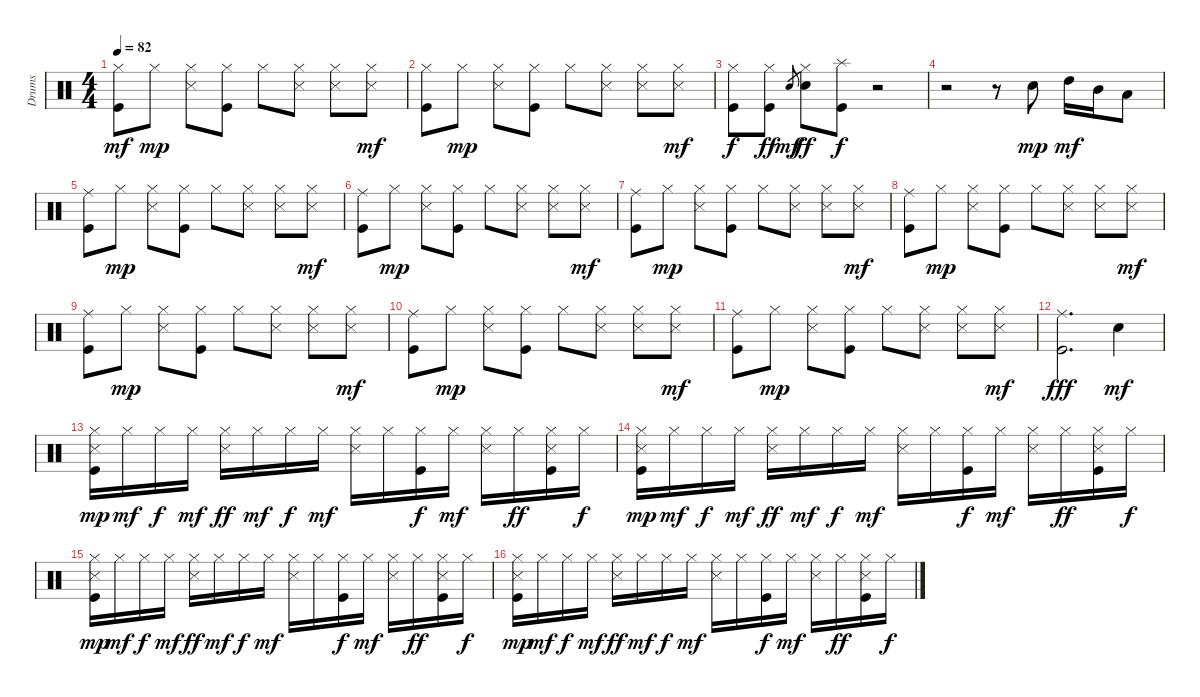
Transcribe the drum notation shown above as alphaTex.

\track ("Drums" "Drums") {instrument percussion}
\staff {score}
\articulation defaults
\ts (4 4)
\tempo 82
\clef neutral
\ks c
("Kick (hit)" "Hi-Hat (closed)").8{dy mf} "Hi-Hat (closed)".8{dy mp} ("Snare (side stick) 3" "Hi-Hat (closed)").8 ("Kick (hit)" "Hi-Hat (closed)").8 "Hi-Hat (closed)".8 ("Snare (side stick) 3" "Hi-Hat (closed)").8 ("Snare (side stick) 3" "Hi-Hat (closed)").8 ("Snare (side stick) 3" "Hi-Hat (closed)").8{dy mf} |
("Kick (hit)" "Hi-Hat (closed)").8 "Hi-Hat (closed)".8{dy mp} ("Snare (side stick) 3" "Hi-Hat (closed)").8 ("Kick (hit)" "Hi-Hat (closed)").8 "Hi-Hat (closed)".8 ("Snare (side stick) 3" "Hi-Hat (closed)").8 ("Snare (side stick) 3" "Hi-Hat (closed)").8 ("Snare (side stick) 3" "Hi-Hat (closed)").8{dy mf} |
("Kick (hit)" "Hi-Hat (closed)").8{dy f} ("Kick (hit)" "Hi-Hat (closed)").8{dy ff} "Electric Snare (hit)".8{gr dy mf} ("Electric Snare (hit)" "Hi-Hat (closed)").8{dy ff} ("Kick (hit)" "Splash (hit)").8{dy f} r.2 |
r.2 r.8 "Electric Snare (hit)".8{dy mp} "High Tom (hit)".16{dy mf} "Mid Tom (hit)".16 "Low Tom (hit)".8 |
("Kick (hit)" "Ride (middle)").8 "Hi-Hat (closed)".8{dy mp} ("Snare (side stick) 3" "Hi-Hat (closed)").8 ("Kick (hit)" "Hi-Hat (closed)").8 "Hi-Hat (closed)".8 ("Snare (side stick) 3" "Hi-Hat (closed)").8 ("Snare (side stick) 3" "Hi-Hat (closed)").8 ("Snare (side stick) 3" "Hi-Hat (closed)").8{dy mf} |
("Kick (hit)" "Ride (middle)").8 "Hi-Hat (closed)".8{dy mp} ("Snare (side stick) 3" "Hi-Hat (closed)").8 ("Kick (hit)" "Hi-Hat (closed)").8 "Hi-Hat (closed)".8 ("Snare (side stick) 3" "Hi-Hat (closed)").8 ("Snare (side stick) 3" "Hi-Hat (closed)").8 ("Snare (side stick) 3" "Hi-Hat (closed)").8{dy mf} |
("Kick (hit)" "Ride (middle)").8 "Hi-Hat (closed)".8{dy mp} ("Snare (side stick) 3" "Hi-Hat (closed)").8 ("Kick (hit)" "Hi-Hat (closed)").8 "Hi-Hat (closed)".8 ("Snare (side stick) 3" "Hi-Hat (closed)").8 ("Snare (side stick) 3" "Hi-Hat (closed)").8 ("Snare (side stick) 3" "Hi-Hat (closed)").8{dy mf} |
("Kick (hit)" "Ride (middle)").8 "Hi-Hat (closed)".8{dy mp} ("Snare (side stick) 3" "Hi-Hat (closed)").8 ("Kick (hit)" "Hi-Hat (closed)").8 "Hi-Hat (closed)".8 ("Snare (side stick) 3" "Hi-Hat (closed)").8 ("Snare (side stick) 3" "Hi-Hat (closed)").8 ("Snare (side stick) 3" "Hi-Hat (closed)").8{dy mf} |
("Kick (hit)" "Ride (middle)").8 "Hi-Hat (closed)".8{dy mp} ("Snare (side stick) 3" "Hi-Hat (closed)").8 ("Kick (hit)" "Hi-Hat (closed)").8 "Hi-Hat (closed)".8 ("Snare (side stick) 3" "Hi-Hat (closed)").8 ("Snare (side stick) 3" "Hi-Hat (closed)").8 ("Snare (side stick) 3" "Hi-Hat (closed)").8{dy mf} |
("Kick (hit)" "Ride (middle)").8 "Hi-Hat (closed)".8{dy mp} ("Snare (side stick) 3" "Hi-Hat (closed)").8 ("Kick (hit)" "Hi-Hat (closed)").8 "Hi-Hat (closed)".8 ("Snare (side stick) 3" "Hi-Hat (closed)").8 ("Snare (side stick) 3" "Hi-Hat (closed)").8 ("Snare (side stick) 3" "Hi-Hat (closed)").8{dy mf} |
("Kick (hit)" "Ride (middle)").8 "Hi-Hat (closed)".8{dy mp} ("Snare (side stick) 3" "Hi-Hat (closed)").8 ("Kick (hit)" "Hi-Hat (closed)").8 "Hi-Hat (closed)".8 ("Snare (side stick) 3" "Hi-Hat (closed)").8 ("Snare (side stick) 3" "Hi-Hat (closed)").8 ("Snare (side stick) 3" "Hi-Hat (closed)").8{dy mf} |
("Kick (hit)" "Ride (middle)").2{d dy fff} "Electric Snare (hit)".4{dy mf} |
("Kick (hit)" "Snare (side stick) 3" "Hi-Hat (closed)").16{dy mp} "Hi-Hat (closed)".16{dy mf} "Hi-Hat (closed)".16{dy f} "Hi-Hat (closed)".16{dy mf} ("Snare (side stick) 3" "Hi-Hat (closed)").16{dy ff} "Hi-Hat (closed)".16{dy mf} "Hi-Hat (closed)".16{dy f} "Hi-Hat (closed)".16{dy mf} ("Snare (side stick) 3" "Hi-Hat (closed)").16 "Hi-Hat (closed)".16 ("Kick (hit)" "Hi-Hat (closed)").16{dy f} "Hi-Hat (closed)".16{dy mf} ("Snare (side stick) 3" "Hi-Hat (closed)").16 "Hi-Hat (closed)".16{dy ff} ("Kick (hit)" "Snare (side stick) 3" "Hi-Hat (closed)").16 "Hi-Hat (closed)".16{dy f} |
("Kick (hit)" "Snare (side stick) 3" "Hi-Hat (closed)").16{dy mp} "Hi-Hat (closed)".16{dy mf} "Hi-Hat (closed)".16{dy f} "Hi-Hat (closed)".16{dy mf} ("Snare (side stick) 3" "Hi-Hat (closed)").16{dy ff} "Hi-Hat (closed)".16{dy mf} "Hi-Hat (closed)".16{dy f} "Hi-Hat (closed)".16{dy mf} ("Snare (side stick) 3" "Hi-Hat (closed)").16 "Hi-Hat (closed)".16 ("Kick (hit)" "Hi-Hat (closed)").16{dy f} "Hi-Hat (closed)".16{dy mf} ("Snare (side stick) 3" "Hi-Hat (closed)").16 "Hi-Hat (closed)".16{dy ff} ("Kick (hit)" "Snare (side stick) 3" "Hi-Hat (closed)").16 "Hi-Hat (closed)".16{dy f} |
("Kick (hit)" "Snare (side stick) 3" "Hi-Hat (closed)").16{dy mp} "Hi-Hat (closed)".16{dy mf} "Hi-Hat (closed)".16{dy f} "Hi-Hat (closed)".16{dy mf} ("Snare (side stick) 3" "Hi-Hat (closed)").16{dy ff} "Hi-Hat (closed)".16{dy mf} "Hi-Hat (closed)".16{dy f} "Hi-Hat (closed)".16{dy mf} ("Snare (side stick) 3" "Hi-Hat (closed)").16 "Hi-Hat (closed)".16 ("Kick (hit)" "Hi-Hat (closed)").16{dy f} "Hi-Hat (closed)".16{dy mf} ("Snare (side stick) 3" "Hi-Hat (closed)").16 "Hi-Hat (closed)".16{dy ff} ("Kick (hit)" "Snare (side stick) 3" "Hi-Hat (closed)").16 "Hi-Hat (closed)".16{dy f} |
("Kick (hit)" "Snare (side stick) 3" "Hi-Hat (closed)").16{dy mp} "Hi-Hat (closed)".16{dy mf} "Hi-Hat (closed)".16{dy f} "Hi-Hat (closed)".16{dy mf} ("Snare (side stick) 3" "Hi-Hat (closed)").16{dy ff} "Hi-Hat (closed)".16{dy mf} "Hi-Hat (closed)".16{dy f} "Hi-Hat (closed)".16{dy mf} ("Snare (side stick) 3" "Hi-Hat (closed)").16 "Hi-Hat (closed)".16 ("Kick (hit)" "Hi-Hat (closed)").16{dy f} "Hi-Hat (closed)".16{dy mf} ("Snare (side stick) 3" "Hi-Hat (closed)").16 "Hi-Hat (closed)".16{dy ff} ("Kick (hit)" "Snare (side stick) 3" "Hi-Hat (closed)").16 "Hi-Hat (closed)".16{dy f}
